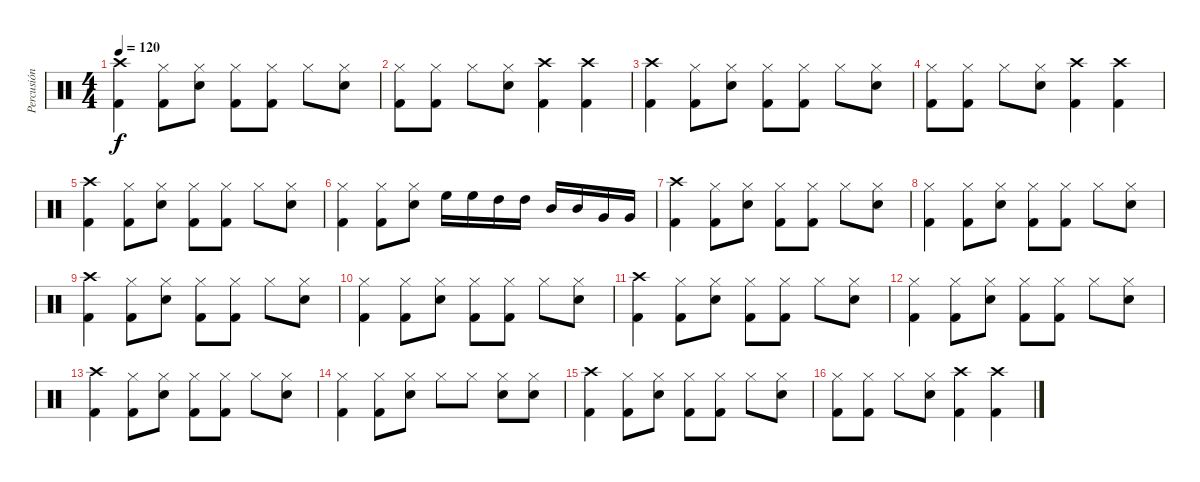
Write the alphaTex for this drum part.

\track ("Percusión" "Percusión") {instrument percussion}
\staff {score}
\articulation defaults
\ts (4 4)
\tempo 120
\clef neutral
\ks c
("Crash high (hit)" "Kick (hit) 2").4{dy f} ("Hi-Hat (closed)" "Kick (hit) 2").8 ("Hi-Hat (closed)" "Snare (hit) 2").8 ("Hi-Hat (closed)" "Kick (hit) 2").8 ("Hi-Hat (closed)" "Kick (hit) 2").8 "Hi-Hat (closed)".8 ("Hi-Hat (closed)" "Snare (hit) 2").8 |
("Hi-Hat (closed)" "Kick (hit) 2").8 ("Hi-Hat (closed)" "Kick (hit) 2").8 "Hi-Hat (closed)".8 ("Hi-Hat (closed)" "Snare (hit) 2").8 ("Crash high (hit)" "Kick (hit) 2").4 ("Crash high (hit)" "Kick (hit) 2").4 |
("Crash high (hit)" "Kick (hit) 2").4 ("Hi-Hat (closed)" "Kick (hit) 2").8 ("Hi-Hat (closed)" "Snare (hit) 2").8 ("Hi-Hat (closed)" "Kick (hit) 2").8 ("Hi-Hat (closed)" "Kick (hit) 2").8 "Hi-Hat (closed)".8 ("Hi-Hat (closed)" "Snare (hit) 2").8 |
("Hi-Hat (closed)" "Kick (hit) 2").8 ("Hi-Hat (closed)" "Kick (hit) 2").8 "Hi-Hat (closed)".8 ("Hi-Hat (closed)" "Snare (hit) 2").8 ("Crash high (hit)" "Kick (hit) 2").4 ("Crash high (hit)" "Kick (hit) 2").4 |
("Crash high (hit)" "Kick (hit) 2").4 ("Hi-Hat (closed)" "Kick (hit) 2").8 ("Hi-Hat (closed)" "Snare (hit) 2").8 ("Hi-Hat (closed)" "Kick (hit) 2").8 ("Hi-Hat (closed)" "Kick (hit) 2").8 "Hi-Hat (closed)".8 ("Hi-Hat (closed)" "Snare (hit) 2").8 |
("Hi-Hat (closed)" "Kick (hit) 2").4 ("Hi-Hat (closed)" "Kick (hit) 2").8 ("Hi-Hat (closed)" "Snare (hit) 2").8 "High Floor Tom (hit)".16 "High Floor Tom (hit)".16 "High Tom (hit)".16 "High Tom (hit)".16 "Mid Tom (hit)".16 "Mid Tom (hit)".16 "Very Low Tom (hit)".16 "Very Low Tom (hit)".16 |
("Crash high (hit)" "Kick (hit) 2").4 ("Hi-Hat (closed)" "Kick (hit) 2").8 ("Hi-Hat (closed)" "Snare (hit) 2").8 ("Hi-Hat (closed)" "Kick (hit) 2").8 ("Hi-Hat (closed)" "Kick (hit) 2").8 "Hi-Hat (closed)".8 ("Hi-Hat (closed)" "Snare (hit) 2").8 |
("Hi-Hat (closed)" "Kick (hit) 2").4 ("Hi-Hat (closed)" "Kick (hit) 2").8 ("Hi-Hat (closed)" "Snare (hit) 2").8 ("Hi-Hat (closed)" "Kick (hit) 2").8 ("Hi-Hat (closed)" "Kick (hit) 2").8 "Hi-Hat (closed)".8 ("Hi-Hat (closed)" "Snare (hit) 2").8 |
("Crash high (hit)" "Kick (hit) 2").4 ("Hi-Hat (closed)" "Kick (hit) 2").8 ("Hi-Hat (closed)" "Snare (hit) 2").8 ("Hi-Hat (closed)" "Kick (hit) 2").8 ("Hi-Hat (closed)" "Kick (hit) 2").8 "Hi-Hat (closed)".8 ("Hi-Hat (closed)" "Snare (hit) 2").8 |
("Hi-Hat (closed)" "Kick (hit) 2").4 ("Hi-Hat (closed)" "Kick (hit) 2").8 ("Hi-Hat (closed)" "Snare (hit) 2").8 ("Hi-Hat (closed)" "Kick (hit) 2").8 ("Hi-Hat (closed)" "Kick (hit) 2").8 "Hi-Hat (closed)".8 ("Hi-Hat (closed)" "Snare (hit) 2").8 |
("Crash high (hit)" "Kick (hit) 2").4 ("Hi-Hat (closed)" "Kick (hit) 2").8 ("Hi-Hat (closed)" "Snare (hit) 2").8 ("Hi-Hat (closed)" "Kick (hit) 2").8 ("Hi-Hat (closed)" "Kick (hit) 2").8 "Hi-Hat (closed)".8 ("Hi-Hat (closed)" "Snare (hit) 2").8 |
("Hi-Hat (closed)" "Kick (hit) 2").4 ("Hi-Hat (closed)" "Kick (hit) 2").8 ("Hi-Hat (closed)" "Snare (hit) 2").8 ("Hi-Hat (closed)" "Kick (hit) 2").8 ("Hi-Hat (closed)" "Kick (hit) 2").8 "Hi-Hat (closed)".8 ("Hi-Hat (closed)" "Snare (hit) 2").8 |
("Crash high (hit)" "Kick (hit) 2").4 ("Hi-Hat (closed)" "Kick (hit) 2").8 ("Hi-Hat (closed)" "Snare (hit) 2").8 ("Hi-Hat (closed)" "Kick (hit) 2").8 ("Hi-Hat (closed)" "Kick (hit) 2").8 "Hi-Hat (closed)".8 ("Hi-Hat (closed)" "Snare (hit) 2").8 |
("Hi-Hat (closed)" "Kick (hit) 2").4 ("Hi-Hat (closed)" "Kick (hit) 2").8 ("Hi-Hat (closed)" "Snare (hit) 2").8 "Hi-Hat (closed)".8 "Hi-Hat (closed)".8 ("Hi-Hat (closed)" "Snare (hit) 2").8 ("Hi-Hat (closed)" "Snare (hit) 2").8 |
("Crash high (hit)" "Kick (hit) 2").4 ("Hi-Hat (closed)" "Kick (hit) 2").8 ("Hi-Hat (closed)" "Snare (hit) 2").8 ("Hi-Hat (closed)" "Kick (hit) 2").8 ("Hi-Hat (closed)" "Kick (hit) 2").8 "Hi-Hat (closed)".8 ("Hi-Hat (closed)" "Snare (hit) 2").8 |
("Hi-Hat (closed)" "Kick (hit) 2").8 ("Hi-Hat (closed)" "Kick (hit) 2").8 "Hi-Hat (closed)".8 ("Hi-Hat (closed)" "Snare (hit) 2").8 ("Crash high (hit)" "Kick (hit) 2").4 ("Crash high (hit)" "Kick (hit) 2").4
